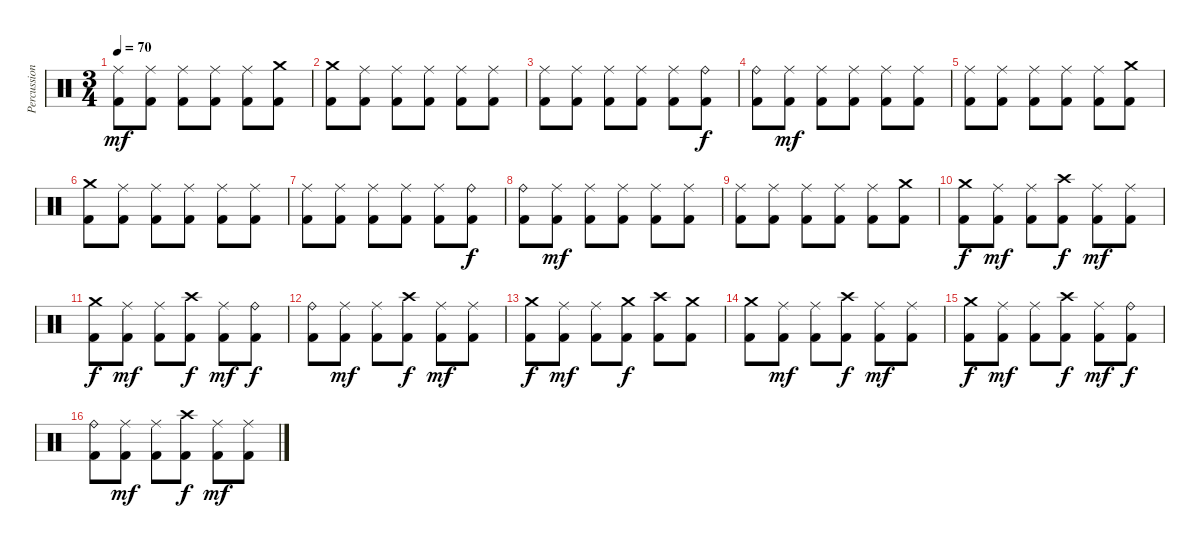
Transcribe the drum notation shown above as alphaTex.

\track ("Percussion" "Percussion") {instrument percussion}
\staff {score}
\articulation defaults
\ts (3 4)
\tempo 70
\clef neutral
\ks c
("Ride (middle)" "Kick (hit) 2").8{dy mf} ("Ride (middle)" "Kick (hit) 2").8 ("Ride (middle)" "Kick (hit) 2").8 ("Ride (middle)" "Kick (hit) 2").8 ("Ride (middle)" "Kick (hit) 2").8 ("Crash medium (hit)" "Kick (hit) 2").8 |
("Crash medium (hit)" "Kick (hit) 2").8 ("Ride (middle)" "Kick (hit) 2").8 ("Ride (middle)" "Kick (hit) 2").8 ("Ride (middle)" "Kick (hit) 2").8 ("Ride (middle)" "Kick (hit) 2").8 ("Ride (middle)" "Kick (hit) 2").8 |
("Ride (middle)" "Kick (hit) 2").8 ("Ride (middle)" "Kick (hit) 2").8 ("Ride (middle)" "Kick (hit) 2").8 ("Ride (middle)" "Kick (hit) 2").8 ("Ride (middle)" "Kick (hit) 2").8 ("Ride (bell)" "Kick (hit) 2").8{dy f} |
("Ride (bell)" "Kick (hit) 2").8 ("Ride (middle)" "Kick (hit) 2").8{dy mf} ("Ride (middle)" "Kick (hit) 2").8 ("Ride (middle)" "Kick (hit) 2").8 ("Ride (middle)" "Kick (hit) 2").8 ("Ride (middle)" "Kick (hit) 2").8 |
("Ride (middle)" "Kick (hit) 2").8 ("Ride (middle)" "Kick (hit) 2").8 ("Ride (middle)" "Kick (hit) 2").8 ("Ride (middle)" "Kick (hit) 2").8 ("Ride (middle)" "Kick (hit) 2").8 ("Crash medium (hit)" "Kick (hit) 2").8 |
("Crash medium (hit)" "Kick (hit) 2").8 ("Ride (middle)" "Kick (hit) 2").8 ("Ride (middle)" "Kick (hit) 2").8 ("Ride (middle)" "Kick (hit) 2").8 ("Ride (middle)" "Kick (hit) 2").8 ("Ride (middle)" "Kick (hit) 2").8 |
("Ride (middle)" "Kick (hit) 2").8 ("Ride (middle)" "Kick (hit) 2").8 ("Ride (middle)" "Kick (hit) 2").8 ("Ride (middle)" "Kick (hit) 2").8 ("Ride (middle)" "Kick (hit) 2").8 ("Ride (bell)" "Kick (hit) 2").8{dy f} |
("Ride (bell)" "Kick (hit) 2").8 ("Ride (middle)" "Kick (hit) 2").8{dy mf} ("Ride (middle)" "Kick (hit) 2").8 ("Ride (middle)" "Kick (hit) 2").8 ("Ride (middle)" "Kick (hit) 2").8 ("Ride (middle)" "Kick (hit) 2").8 |
("Ride (middle)" "Kick (hit) 2").8 ("Ride (middle)" "Kick (hit) 2").8 ("Ride (middle)" "Kick (hit) 2").8 ("Ride (middle)" "Kick (hit) 2").8 ("Ride (middle)" "Kick (hit) 2").8 ("Crash medium (hit)" "Kick (hit) 2").8 |
("Crash medium (hit)" "Kick (hit) 2").8{dy f} ("Ride (middle)" "Kick (hit) 2").8{dy mf} ("Ride (middle)" "Kick (hit) 2").8 ("Crash high (hit)" "Kick (hit) 2").8{dy f} ("Ride (middle)" "Kick (hit) 2").8{dy mf} ("Ride (middle)" "Kick (hit) 2").8 |
("Crash medium (hit)" "Kick (hit) 2").8{dy f} ("Ride (middle)" "Kick (hit) 2").8{dy mf} ("Ride (middle)" "Kick (hit) 2").8 ("Crash high (hit)" "Kick (hit) 2").8{dy f} ("Ride (middle)" "Kick (hit) 2").8{dy mf} ("Ride (bell)" "Kick (hit) 2").8{dy f} |
("Ride (bell)" "Kick (hit) 2").8 ("Ride (middle)" "Kick (hit) 2").8{dy mf} ("Ride (middle)" "Kick (hit) 2").8 ("Crash high (hit)" "Kick (hit) 2").8{dy f} ("Ride (middle)" "Kick (hit) 2").8{dy mf} ("Ride (middle)" "Kick (hit) 2").8 |
("Crash medium (hit)" "Kick (hit) 2").8{dy f} ("Ride (middle)" "Kick (hit) 2").8{dy mf} ("Ride (middle)" "Kick (hit) 2").8 ("Crash medium (hit)" "Kick (hit) 2").8{dy f} ("Crash high (hit)" "Kick (hit) 2").8 ("Crash medium (hit)" "Kick (hit) 2").8 |
("Crash medium (hit)" "Kick (hit) 2").8 ("Ride (middle)" "Kick (hit) 2").8{dy mf} ("Ride (middle)" "Kick (hit) 2").8 ("Crash high (hit)" "Kick (hit) 2").8{dy f} ("Ride (middle)" "Kick (hit) 2").8{dy mf} ("Ride (middle)" "Kick (hit) 2").8 |
("Crash medium (hit)" "Kick (hit) 2").8{dy f} ("Ride (middle)" "Kick (hit) 2").8{dy mf} ("Ride (middle)" "Kick (hit) 2").8 ("Crash high (hit)" "Kick (hit) 2").8{dy f} ("Ride (middle)" "Kick (hit) 2").8{dy mf} ("Ride (bell)" "Kick (hit) 2").8{dy f} |
("Ride (bell)" "Kick (hit) 2").8 ("Ride (middle)" "Kick (hit) 2").8{dy mf} ("Ride (middle)" "Kick (hit) 2").8 ("Crash high (hit)" "Kick (hit) 2").8{dy f} ("Ride (middle)" "Kick (hit) 2").8{dy mf} ("Ride (middle)" "Kick (hit) 2").8
